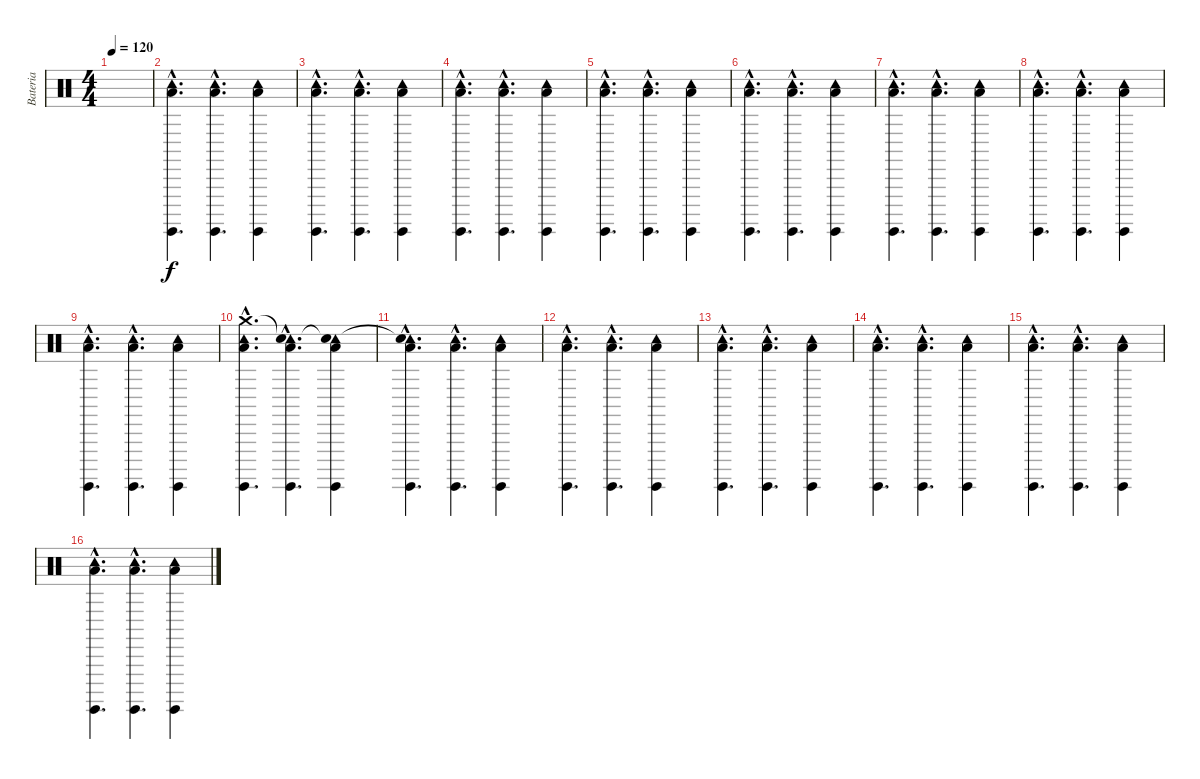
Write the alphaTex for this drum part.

\track ("Bateria" "Bateria") {instrument percussion}
\staff {score}
\articulation defaults
\ts (4 4)
\tempo 120
\clef neutral
\ks c
|
("Low Tom (hit)"{hac} "Surdo (hit)"{hac} "Tambourine (hit)"{hac}).4{d} ("Low Tom (hit)"{hac} "Surdo (hit)"{hac} "Tambourine (hit)"{hac}).4{d} ("Low Tom (hit)" "Surdo (hit)" "Tambourine (hit)").4 |
("Low Tom (hit)"{hac} "Surdo (hit)"{hac} "Tambourine (hit)"{hac}).4{d} ("Low Tom (hit)"{hac} "Surdo (hit)"{hac} "Tambourine (hit)"{hac}).4{d} ("Low Tom (hit)" "Surdo (hit)" "Tambourine (hit)").4 |
("Low Tom (hit)"{hac} "Surdo (hit)"{hac} "Tambourine (hit)"{hac}).4{d} ("Low Tom (hit)"{hac} "Surdo (hit)"{hac} "Tambourine (hit)"{hac}).4{d} ("Low Tom (hit)" "Surdo (hit)" "Tambourine (hit)").4 |
("Low Tom (hit)"{hac} "Surdo (hit)"{hac} "Tambourine (hit)"{hac}).4{d} ("Low Tom (hit)"{hac} "Surdo (hit)"{hac} "Tambourine (hit)"{hac}).4{d} ("Low Tom (hit)" "Surdo (hit)" "Tambourine (hit)").4 |
("Low Tom (hit)"{hac} "Surdo (hit)"{hac} "Tambourine (hit)"{hac}).4{d} ("Low Tom (hit)"{hac} "Surdo (hit)"{hac} "Tambourine (hit)"{hac}).4{d} ("Low Tom (hit)" "Surdo (hit)" "Tambourine (hit)").4 |
("Low Tom (hit)"{hac} "Surdo (hit)"{hac} "Tambourine (hit)"{hac}).4{d} ("Low Tom (hit)"{hac} "Surdo (hit)"{hac} "Tambourine (hit)"{hac}).4{d} ("Low Tom (hit)" "Surdo (hit)" "Tambourine (hit)").4 |
("Low Tom (hit)"{hac} "Surdo (hit)"{hac} "Tambourine (hit)"{hac}).4{d} ("Low Tom (hit)"{hac} "Surdo (hit)"{hac} "Tambourine (hit)"{hac}).4{d} ("Low Tom (hit)" "Surdo (hit)" "Tambourine (hit)").4 |
("Low Tom (hit)"{hac} "Surdo (hit)"{hac} "Tambourine (hit)"{hac}).4{d} ("Low Tom (hit)"{hac} "Surdo (hit)"{hac} "Tambourine (hit)"{hac}).4{d} ("Low Tom (hit)" "Surdo (hit)" "Tambourine (hit)").4 |
("Low Tom (hit)"{hac} "Surdo (hit)"{hac} "Tambourine (hit)"{hac} "Crash medium (hit)"{hac}).4{d} ("Low Tom (hit)"{hac} "Surdo (hit)"{hac} "Tambourine (hit)"{hac} "Snare (hit)"{hac t}).4{d} ("Low Tom (hit)" "Surdo (hit)" "Tambourine (hit)" "Snare (hit)"{t}).4 |
("Low Tom (hit)"{hac} "Surdo (hit)"{hac} "Tambourine (hit)"{hac} "Snare (hit)"{hac t}).4{d} ("Low Tom (hit)"{hac} "Surdo (hit)"{hac} "Tambourine (hit)"{hac}).4{d} ("Low Tom (hit)" "Surdo (hit)" "Tambourine (hit)").4 |
("Low Tom (hit)"{hac} "Surdo (hit)"{hac} "Tambourine (hit)"{hac}).4{d} ("Low Tom (hit)"{hac} "Surdo (hit)"{hac} "Tambourine (hit)"{hac}).4{d} ("Low Tom (hit)" "Surdo (hit)" "Tambourine (hit)").4 |
("Low Tom (hit)"{hac} "Surdo (hit)"{hac} "Tambourine (hit)"{hac}).4{d} ("Low Tom (hit)"{hac} "Surdo (hit)"{hac} "Tambourine (hit)"{hac}).4{d} ("Low Tom (hit)" "Surdo (hit)" "Tambourine (hit)").4 |
("Low Tom (hit)"{hac} "Surdo (hit)"{hac} "Tambourine (hit)"{hac}).4{d} ("Low Tom (hit)"{hac} "Surdo (hit)"{hac} "Tambourine (hit)"{hac}).4{d} ("Low Tom (hit)" "Surdo (hit)" "Tambourine (hit)").4 |
("Low Tom (hit)"{hac} "Surdo (hit)"{hac} "Tambourine (hit)"{hac}).4{d} ("Low Tom (hit)"{hac} "Surdo (hit)"{hac} "Tambourine (hit)"{hac}).4{d} ("Low Tom (hit)" "Surdo (hit)" "Tambourine (hit)").4 |
("Low Tom (hit)"{hac} "Surdo (hit)"{hac} "Tambourine (hit)"{hac}).4{d} ("Low Tom (hit)"{hac} "Surdo (hit)"{hac} "Tambourine (hit)"{hac}).4{d} ("Low Tom (hit)" "Surdo (hit)" "Tambourine (hit)").4
